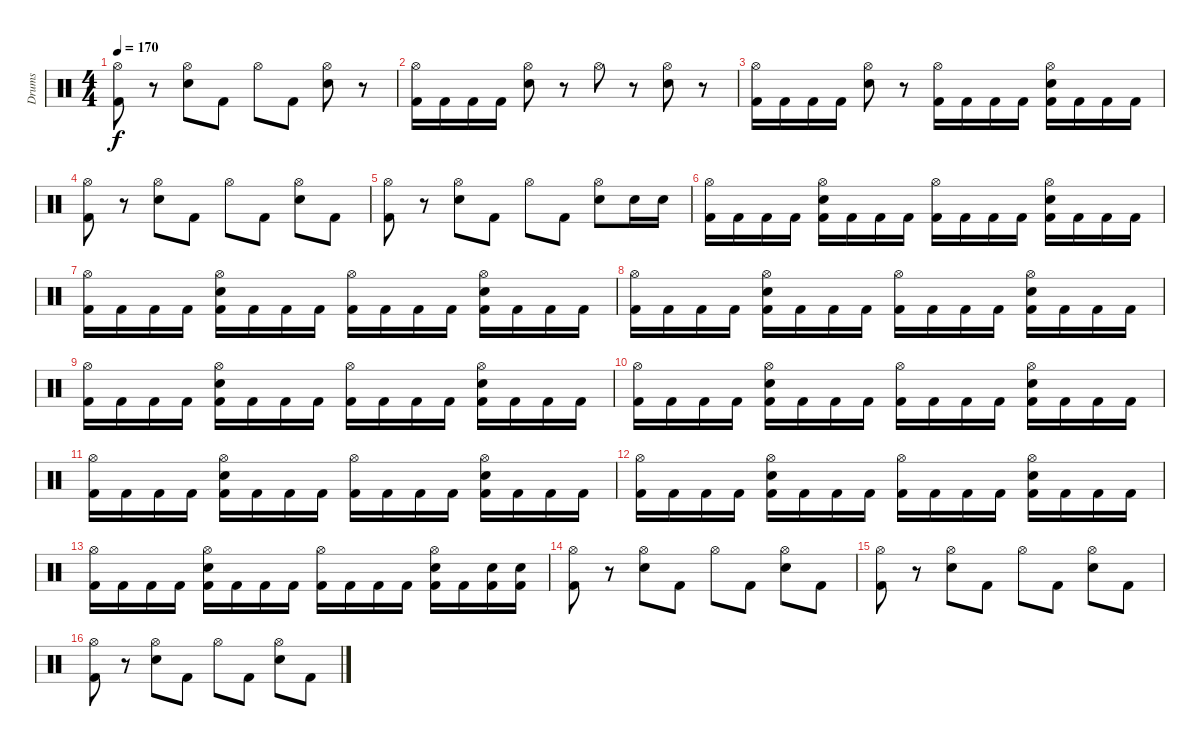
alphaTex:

\track ("Drums" "Drums") {instrument percussion}
\staff {score}
\articulation defaults
\ts (4 4)
\tempo 170
\clef neutral
\ks c
("Hi-Hat (open)" "Kick (hit) 2").8{dy f} r.8 ("Hi-Hat (open)" "Electric Snare (hit)").8 "Kick (hit) 2".8 "Hi-Hat (open)".8 "Kick (hit) 2".8 ("Hi-Hat (open)" "Electric Snare (hit)").8 r.8 |
("Hi-Hat (open)" "Kick (hit) 2").16 "Kick (hit) 2".16 "Kick (hit) 2".16 "Kick (hit) 2".16 ("Hi-Hat (open)" "Electric Snare (hit)").8 r.8 "Hi-Hat (open)".8 r.8 ("Hi-Hat (open)" "Electric Snare (hit)").8 r.8 |
("Hi-Hat (open)" "Kick (hit) 2").16 "Kick (hit) 2".16 "Kick (hit) 2".16 "Kick (hit) 2".16 ("Hi-Hat (open)" "Electric Snare (hit)").8 r.8 ("Hi-Hat (open)" "Kick (hit) 2").16 "Kick (hit) 2".16 "Kick (hit) 2".16 "Kick (hit) 2".16 ("Hi-Hat (open)" "Electric Snare (hit)" "Kick (hit) 2").16 "Kick (hit) 2".16 "Kick (hit) 2".16 "Kick (hit) 2".16 |
("Hi-Hat (open)" "Kick (hit) 2").8 r.8 ("Hi-Hat (open)" "Electric Snare (hit)").8 "Kick (hit) 2".8 "Hi-Hat (open)".8 "Kick (hit) 2".8 ("Hi-Hat (open)" "Electric Snare (hit)").8 "Kick (hit) 2".8 |
("Hi-Hat (open)" "Kick (hit) 2").8 r.8 ("Hi-Hat (open)" "Electric Snare (hit)").8 "Kick (hit) 2".8 "Hi-Hat (open)".8 "Kick (hit) 2".8 ("Hi-Hat (open)" "Electric Snare (hit)").8 "Electric Snare (hit)".16 "Electric Snare (hit)".16 |
("Hi-Hat (open)" "Kick (hit) 2").16 "Kick (hit) 2".16 "Kick (hit) 2".16 "Kick (hit) 2".16 ("Hi-Hat (open)" "Electric Snare (hit)" "Kick (hit) 2").16 "Kick (hit) 2".16 "Kick (hit) 2".16 "Kick (hit) 2".16 ("Hi-Hat (open)" "Kick (hit) 2").16 "Kick (hit) 2".16 "Kick (hit) 2".16 "Kick (hit) 2".16 ("Hi-Hat (open)" "Electric Snare (hit)" "Kick (hit) 2").16 "Kick (hit) 2".16 "Kick (hit) 2".16 "Kick (hit) 2".16 |
("Hi-Hat (open)" "Kick (hit) 2").16 "Kick (hit) 2".16 "Kick (hit) 2".16 "Kick (hit) 2".16 ("Hi-Hat (open)" "Electric Snare (hit)" "Kick (hit) 2").16 "Kick (hit) 2".16 "Kick (hit) 2".16 "Kick (hit) 2".16 ("Hi-Hat (open)" "Kick (hit) 2").16 "Kick (hit) 2".16 "Kick (hit) 2".16 "Kick (hit) 2".16 ("Hi-Hat (open)" "Electric Snare (hit)" "Kick (hit) 2").16 "Kick (hit) 2".16 "Kick (hit) 2".16 "Kick (hit) 2".16 |
("Hi-Hat (open)" "Kick (hit) 2").16 "Kick (hit) 2".16 "Kick (hit) 2".16 "Kick (hit) 2".16 ("Hi-Hat (open)" "Electric Snare (hit)" "Kick (hit) 2").16 "Kick (hit) 2".16 "Kick (hit) 2".16 "Kick (hit) 2".16 ("Hi-Hat (open)" "Kick (hit) 2").16 "Kick (hit) 2".16 "Kick (hit) 2".16 "Kick (hit) 2".16 ("Hi-Hat (open)" "Electric Snare (hit)" "Kick (hit) 2").16 "Kick (hit) 2".16 "Kick (hit) 2".16 "Kick (hit) 2".16 |
("Hi-Hat (open)" "Kick (hit) 2").16 "Kick (hit) 2".16 "Kick (hit) 2".16 "Kick (hit) 2".16 ("Hi-Hat (open)" "Electric Snare (hit)" "Kick (hit) 2").16 "Kick (hit) 2".16 "Kick (hit) 2".16 "Kick (hit) 2".16 ("Hi-Hat (open)" "Kick (hit) 2").16 "Kick (hit) 2".16 "Kick (hit) 2".16 "Kick (hit) 2".16 ("Hi-Hat (open)" "Electric Snare (hit)" "Kick (hit) 2").16 "Kick (hit) 2".16 "Kick (hit) 2".16 "Kick (hit) 2".16 |
("Hi-Hat (open)" "Kick (hit) 2").16 "Kick (hit) 2".16 "Kick (hit) 2".16 "Kick (hit) 2".16 ("Hi-Hat (open)" "Electric Snare (hit)" "Kick (hit) 2").16 "Kick (hit) 2".16 "Kick (hit) 2".16 "Kick (hit) 2".16 ("Hi-Hat (open)" "Kick (hit) 2").16 "Kick (hit) 2".16 "Kick (hit) 2".16 "Kick (hit) 2".16 ("Hi-Hat (open)" "Electric Snare (hit)" "Kick (hit) 2").16 "Kick (hit) 2".16 "Kick (hit) 2".16 "Kick (hit) 2".16 |
("Hi-Hat (open)" "Kick (hit) 2").16 "Kick (hit) 2".16 "Kick (hit) 2".16 "Kick (hit) 2".16 ("Hi-Hat (open)" "Electric Snare (hit)" "Kick (hit) 2").16 "Kick (hit) 2".16 "Kick (hit) 2".16 "Kick (hit) 2".16 ("Hi-Hat (open)" "Kick (hit) 2").16 "Kick (hit) 2".16 "Kick (hit) 2".16 "Kick (hit) 2".16 ("Hi-Hat (open)" "Electric Snare (hit)" "Kick (hit) 2").16 "Kick (hit) 2".16 "Kick (hit) 2".16 "Kick (hit) 2".16 |
("Hi-Hat (open)" "Kick (hit) 2").16 "Kick (hit) 2".16 "Kick (hit) 2".16 "Kick (hit) 2".16 ("Hi-Hat (open)" "Electric Snare (hit)" "Kick (hit) 2").16 "Kick (hit) 2".16 "Kick (hit) 2".16 "Kick (hit) 2".16 ("Hi-Hat (open)" "Kick (hit) 2").16 "Kick (hit) 2".16 "Kick (hit) 2".16 "Kick (hit) 2".16 ("Hi-Hat (open)" "Electric Snare (hit)" "Kick (hit) 2").16 "Kick (hit) 2".16 "Kick (hit) 2".16 "Kick (hit) 2".16 |
("Hi-Hat (open)" "Kick (hit) 2").16 "Kick (hit) 2".16 "Kick (hit) 2".16 "Kick (hit) 2".16 ("Hi-Hat (open)" "Electric Snare (hit)" "Kick (hit) 2").16 "Kick (hit) 2".16 "Kick (hit) 2".16 "Kick (hit) 2".16 ("Hi-Hat (open)" "Kick (hit) 2").16 "Kick (hit) 2".16 "Kick (hit) 2".16 "Kick (hit) 2".16 ("Hi-Hat (open)" "Electric Snare (hit)" "Kick (hit) 2").16 "Kick (hit) 2".16 ("Electric Snare (hit)" "Kick (hit) 2").16 ("Electric Snare (hit)" "Kick (hit) 2").16 |
("Hi-Hat (open)" "Kick (hit) 2").8 r.8 ("Hi-Hat (open)" "Electric Snare (hit)").8 "Kick (hit) 2".8 "Hi-Hat (open)".8 "Kick (hit) 2".8 ("Hi-Hat (open)" "Electric Snare (hit)").8 "Kick (hit) 2".8 |
("Hi-Hat (open)" "Kick (hit) 2").8 r.8 ("Hi-Hat (open)" "Electric Snare (hit)").8 "Kick (hit) 2".8 "Hi-Hat (open)".8 "Kick (hit) 2".8 ("Hi-Hat (open)" "Electric Snare (hit)").8 "Kick (hit) 2".8 |
("Hi-Hat (open)" "Kick (hit) 2").8 r.8 ("Hi-Hat (open)" "Electric Snare (hit)").8 "Kick (hit) 2".8 "Hi-Hat (open)".8 "Kick (hit) 2".8 ("Hi-Hat (open)" "Electric Snare (hit)").8 "Kick (hit) 2".8
